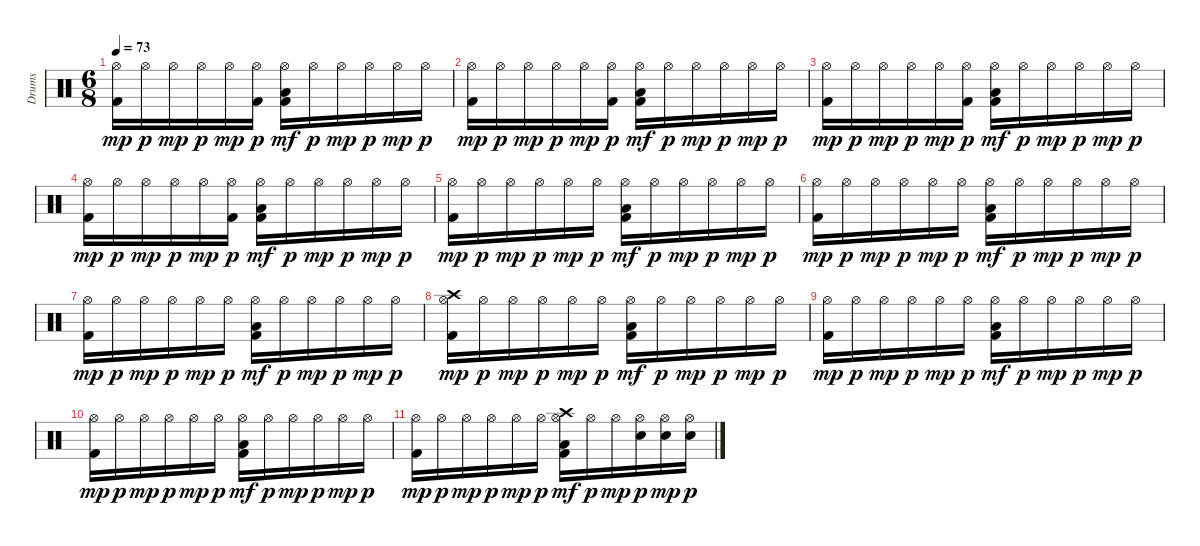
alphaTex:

\track ("Drums" "Drums") {instrument percussion}
\staff {score}
\articulation defaults
\ts (6 8)
\tempo 73
\clef neutral
\ks c
("Hi-Hat (open)" "Kick (hit) 2").16{dy mp} "Hi-Hat (open)".16{dy p} "Hi-Hat (open)".16{dy mp} "Hi-Hat (open)".16{dy p} "Hi-Hat (open)".16{dy mp} ("Kick (hit) 2" "Hi-Hat (open)").16{dy p} ("Hi-Hat (open)" "Low Floor Tom (hit)" "Kick (hit) 2").16{dy mf} "Hi-Hat (open)".16{dy p} "Hi-Hat (open)".16{dy mp} "Hi-Hat (open)".16{dy p} "Hi-Hat (open)".16{dy mp} "Hi-Hat (open)".16{dy p} |
("Hi-Hat (open)" "Kick (hit) 2").16{dy mp} "Hi-Hat (open)".16{dy p} "Hi-Hat (open)".16{dy mp} "Hi-Hat (open)".16{dy p} "Hi-Hat (open)".16{dy mp} ("Kick (hit) 2" "Hi-Hat (open)").16{dy p} ("Hi-Hat (open)" "Low Floor Tom (hit)" "Kick (hit) 2").16{dy mf} "Hi-Hat (open)".16{dy p} "Hi-Hat (open)".16{dy mp} "Hi-Hat (open)".16{dy p} "Hi-Hat (open)".16{dy mp} "Hi-Hat (open)".16{dy p} |
("Hi-Hat (open)" "Kick (hit) 2").16{dy mp} "Hi-Hat (open)".16{dy p} "Hi-Hat (open)".16{dy mp} "Hi-Hat (open)".16{dy p} "Hi-Hat (open)".16{dy mp} ("Kick (hit) 2" "Hi-Hat (open)").16{dy p} ("Hi-Hat (open)" "Low Floor Tom (hit)" "Kick (hit) 2").16{dy mf} "Hi-Hat (open)".16{dy p} "Hi-Hat (open)".16{dy mp} "Hi-Hat (open)".16{dy p} "Hi-Hat (open)".16{dy mp} "Hi-Hat (open)".16{dy p} |
("Hi-Hat (open)" "Kick (hit) 2").16{dy mp} "Hi-Hat (open)".16{dy p} "Hi-Hat (open)".16{dy mp} "Hi-Hat (open)".16{dy p} "Hi-Hat (open)".16{dy mp} ("Kick (hit) 2" "Hi-Hat (open)").16{dy p} ("Hi-Hat (open)" "Low Floor Tom (hit)" "Kick (hit) 2").16{dy mf} "Hi-Hat (open)".16{dy p} "Hi-Hat (open)".16{dy mp} "Hi-Hat (open)".16{dy p} "Hi-Hat (open)".16{dy mp} "Hi-Hat (open)".16{dy p} |
("Hi-Hat (open)" "Kick (hit) 2").16{dy mp} "Hi-Hat (open)".16{dy p} "Hi-Hat (open)".16{dy mp} "Hi-Hat (open)".16{dy p} "Hi-Hat (open)".16{dy mp} "Hi-Hat (open)".16{dy p} ("Hi-Hat (open)" "Low Floor Tom (hit)" "Kick (hit) 2").16{dy mf} "Hi-Hat (open)".16{dy p} "Hi-Hat (open)".16{dy mp} "Hi-Hat (open)".16{dy p} "Hi-Hat (open)".16{dy mp} "Hi-Hat (open)".16{dy p} |
("Hi-Hat (open)" "Kick (hit) 2").16{dy mp} "Hi-Hat (open)".16{dy p} "Hi-Hat (open)".16{dy mp} "Hi-Hat (open)".16{dy p} "Hi-Hat (open)".16{dy mp} "Hi-Hat (open)".16{dy p} ("Hi-Hat (open)" "Low Floor Tom (hit)" "Kick (hit) 2").16{dy mf} "Hi-Hat (open)".16{dy p} "Hi-Hat (open)".16{dy mp} "Hi-Hat (open)".16{dy p} "Hi-Hat (open)".16{dy mp} "Hi-Hat (open)".16{dy p} |
("Hi-Hat (open)" "Kick (hit) 2").16{dy mp} "Hi-Hat (open)".16{dy p} "Hi-Hat (open)".16{dy mp} "Hi-Hat (open)".16{dy p} "Hi-Hat (open)".16{dy mp} "Hi-Hat (open)".16{dy p} ("Hi-Hat (open)" "Low Floor Tom (hit)" "Kick (hit) 2").16{dy mf} "Hi-Hat (open)".16{dy p} "Hi-Hat (open)".16{dy mp} "Hi-Hat (open)".16{dy p} "Hi-Hat (open)".16{dy mp} "Hi-Hat (open)".16{dy p} |
("Crash high (hit)" "Hi-Hat (open)" "Kick (hit) 2").16{dy mp} "Hi-Hat (open)".16{dy p} "Hi-Hat (open)".16{dy mp} "Hi-Hat (open)".16{dy p} "Hi-Hat (open)".16{dy mp} "Hi-Hat (open)".16{dy p} ("Hi-Hat (open)" "Low Floor Tom (hit)" "Kick (hit) 2").16{dy mf} "Hi-Hat (open)".16{dy p} "Hi-Hat (open)".16{dy mp} "Hi-Hat (open)".16{dy p} "Hi-Hat (open)".16{dy mp} "Hi-Hat (open)".16{dy p} |
("Hi-Hat (open)" "Kick (hit) 2").16{dy mp} "Hi-Hat (open)".16{dy p} "Hi-Hat (open)".16{dy mp} "Hi-Hat (open)".16{dy p} "Hi-Hat (open)".16{dy mp} "Hi-Hat (open)".16{dy p} ("Hi-Hat (open)" "Low Floor Tom (hit)" "Kick (hit) 2").16{dy mf} "Hi-Hat (open)".16{dy p} "Hi-Hat (open)".16{dy mp} "Hi-Hat (open)".16{dy p} "Hi-Hat (open)".16{dy mp} "Hi-Hat (open)".16{dy p} |
("Hi-Hat (open)" "Kick (hit) 2").16{dy mp} "Hi-Hat (open)".16{dy p} "Hi-Hat (open)".16{dy mp} "Hi-Hat (open)".16{dy p} "Hi-Hat (open)".16{dy mp} "Hi-Hat (open)".16{dy p} ("Hi-Hat (open)" "Low Floor Tom (hit)" "Kick (hit) 2").16{dy mf} "Hi-Hat (open)".16{dy p} "Hi-Hat (open)".16{dy mp} "Hi-Hat (open)".16{dy p} "Hi-Hat (open)".16{dy mp} "Hi-Hat (open)".16{dy p} |
("Hi-Hat (open)" "Kick (hit) 2").16{dy mp} "Hi-Hat (open)".16{dy p} "Hi-Hat (open)".16{dy mp} "Hi-Hat (open)".16{dy p} "Hi-Hat (open)".16{dy mp} "Hi-Hat (open)".16{dy p} ("Crash high (hit)" "Hi-Hat (open)" "Low Floor Tom (hit)" "Kick (hit) 2").16{dy mf} "Hi-Hat (open)".16{dy p} "Hi-Hat (open)".16{dy mp} ("Snare (hit) 2" "Hi-Hat (open)").16{dy p} ("Snare (hit) 2" "Hi-Hat (open)").16{dy mp} ("Snare (hit) 2" "Hi-Hat (open)").16{dy p}
